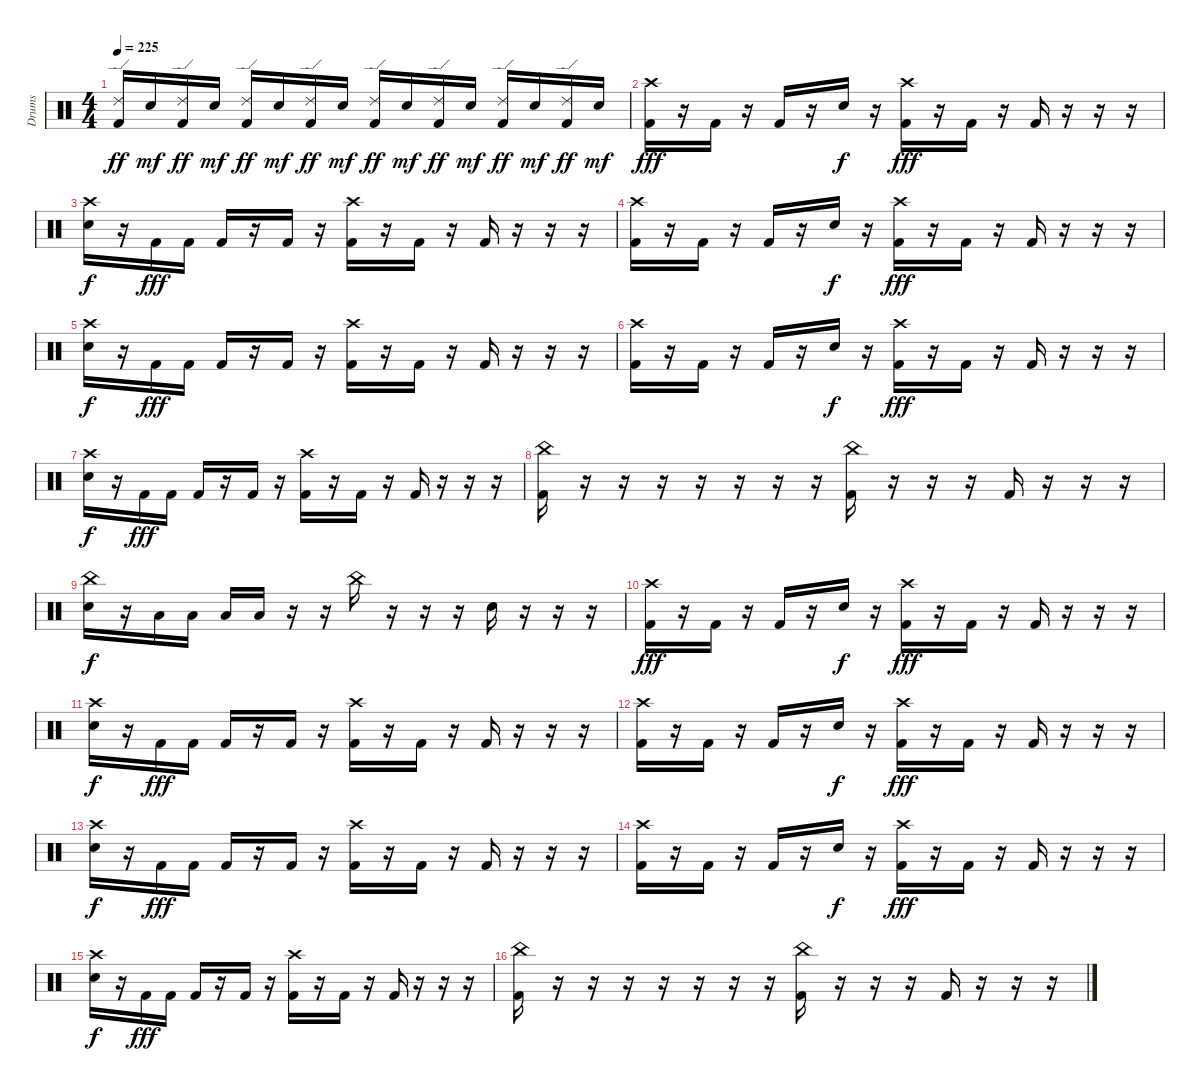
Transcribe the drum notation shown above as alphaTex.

\track ("Drums" "Drums") {instrument percussion}
\staff {score}
\articulation defaults
\ts (4 4)
\tempo 225
\clef neutral
\ks c
("Ride (edge) 2" "Kick (hit) 2").16{dy ff} "Electric Snare (hit)".16{dy mf} ("Ride (edge) 2" "Kick (hit) 2").16{dy ff} "Electric Snare (hit)".16{dy mf} ("Ride (edge) 2" "Kick (hit) 2").16{dy ff} "Electric Snare (hit)".16{dy mf} ("Ride (edge) 2" "Kick (hit) 2").16{dy ff} "Electric Snare (hit)".16{dy mf} ("Ride (edge) 2" "Kick (hit) 2").16{dy ff} "Electric Snare (hit)".16{dy mf} ("Ride (edge) 2" "Kick (hit) 2").16{dy ff} "Electric Snare (hit)".16{dy mf} ("Ride (edge) 2" "Kick (hit) 2").16{dy ff} "Electric Snare (hit)".16{dy mf} ("Ride (edge) 2" "Kick (hit) 2").16{dy ff} "Electric Snare (hit)".16{dy mf} |
("Crash high (hit)" "Kick (hit) 2").16{dy fff} r.16 "Kick (hit) 2".16 r.16 "Kick (hit) 2".16 r.16 "Electric Snare (hit)".16{dy f} r.16 ("Crash high (hit)" "Kick (hit) 2").16{dy fff} r.16 "Kick (hit) 2".16 r.16 "Kick (hit) 2".16 r.16 r.16 r.16 |
("Crash high (hit)" "Electric Snare (hit)").16{dy f} r.16 "Kick (hit) 2".16{dy fff} "Kick (hit) 2".16 "Kick (hit) 2".16 r.16 "Kick (hit) 2".16 r.16 ("Crash high (hit)" "Kick (hit) 2").16 r.16 "Kick (hit) 2".16 r.16 "Kick (hit) 2".16 r.16 r.16 r.16 |
("Crash high (hit)" "Kick (hit) 2").16 r.16 "Kick (hit) 2".16 r.16 "Kick (hit) 2".16 r.16 "Electric Snare (hit)".16{dy f} r.16 ("Crash high (hit)" "Kick (hit) 2").16{dy fff} r.16 "Kick (hit) 2".16 r.16 "Kick (hit) 2".16 r.16 r.16 r.16 |
("Crash high (hit)" "Electric Snare (hit)").16{dy f} r.16 "Kick (hit) 2".16{dy fff} "Kick (hit) 2".16 "Kick (hit) 2".16 r.16 "Kick (hit) 2".16 r.16 ("Crash high (hit)" "Kick (hit) 2").16 r.16 "Kick (hit) 2".16 r.16 "Kick (hit) 2".16 r.16 r.16 r.16 |
("Crash high (hit)" "Kick (hit) 2").16 r.16 "Kick (hit) 2".16 r.16 "Kick (hit) 2".16 r.16 "Electric Snare (hit)".16{dy f} r.16 ("Crash high (hit)" "Kick (hit) 2").16{dy fff} r.16 "Kick (hit) 2".16 r.16 "Kick (hit) 2".16 r.16 r.16 r.16 |
("Crash high (hit)" "Electric Snare (hit)").16{dy f} r.16 "Kick (hit) 2".16{dy fff} "Kick (hit) 2".16 "Kick (hit) 2".16 r.16 "Kick (hit) 2".16 r.16 ("Crash high (hit)" "Kick (hit) 2").16 r.16 "Kick (hit) 2".16 r.16 "Kick (hit) 2".16 r.16 r.16 r.16 |
("China (hit)" "Kick (hit) 2").16 r.16 r.16 r.16 r.16 r.16 r.16 r.16 ("China (hit)" "Kick (hit) 2").16 r.16 r.16 r.16 "Kick (hit) 2".16 r.16 r.16 r.16 |
("China (hit)" "Electric Snare (hit)").16{dy f} r.16 "Low Tom (hit)".16 "Low Tom (hit)".16 "Low Tom (hit)".16 "Low Tom (hit)".16 r.16 r.16 "China (hit)".16 r.16 r.16 r.16 "Electric Snare (hit)".16 r.16 r.16 r.16 |
("Crash high (hit)" "Kick (hit) 2").16{dy fff} r.16 "Kick (hit) 2".16 r.16 "Kick (hit) 2".16 r.16 "Electric Snare (hit)".16{dy f} r.16 ("Crash high (hit)" "Kick (hit) 2").16{dy fff} r.16 "Kick (hit) 2".16 r.16 "Kick (hit) 2".16 r.16 r.16 r.16 |
("Crash high (hit)" "Electric Snare (hit)").16{dy f} r.16 "Kick (hit) 2".16{dy fff} "Kick (hit) 2".16 "Kick (hit) 2".16 r.16 "Kick (hit) 2".16 r.16 ("Crash high (hit)" "Kick (hit) 2").16 r.16 "Kick (hit) 2".16 r.16 "Kick (hit) 2".16 r.16 r.16 r.16 |
("Crash high (hit)" "Kick (hit) 2").16 r.16 "Kick (hit) 2".16 r.16 "Kick (hit) 2".16 r.16 "Electric Snare (hit)".16{dy f} r.16 ("Crash high (hit)" "Kick (hit) 2").16{dy fff} r.16 "Kick (hit) 2".16 r.16 "Kick (hit) 2".16 r.16 r.16 r.16 |
("Crash high (hit)" "Electric Snare (hit)").16{dy f} r.16 "Kick (hit) 2".16{dy fff} "Kick (hit) 2".16 "Kick (hit) 2".16 r.16 "Kick (hit) 2".16 r.16 ("Crash high (hit)" "Kick (hit) 2").16 r.16 "Kick (hit) 2".16 r.16 "Kick (hit) 2".16 r.16 r.16 r.16 |
("Crash high (hit)" "Kick (hit) 2").16 r.16 "Kick (hit) 2".16 r.16 "Kick (hit) 2".16 r.16 "Electric Snare (hit)".16{dy f} r.16 ("Crash high (hit)" "Kick (hit) 2").16{dy fff} r.16 "Kick (hit) 2".16 r.16 "Kick (hit) 2".16 r.16 r.16 r.16 |
("Crash high (hit)" "Electric Snare (hit)").16{dy f} r.16 "Kick (hit) 2".16{dy fff} "Kick (hit) 2".16 "Kick (hit) 2".16 r.16 "Kick (hit) 2".16 r.16 ("Crash high (hit)" "Kick (hit) 2").16 r.16 "Kick (hit) 2".16 r.16 "Kick (hit) 2".16 r.16 r.16 r.16 |
("China (hit)" "Kick (hit) 2").16 r.16 r.16 r.16 r.16 r.16 r.16 r.16 ("China (hit)" "Kick (hit) 2").16 r.16 r.16 r.16 "Kick (hit) 2".16 r.16 r.16 r.16
